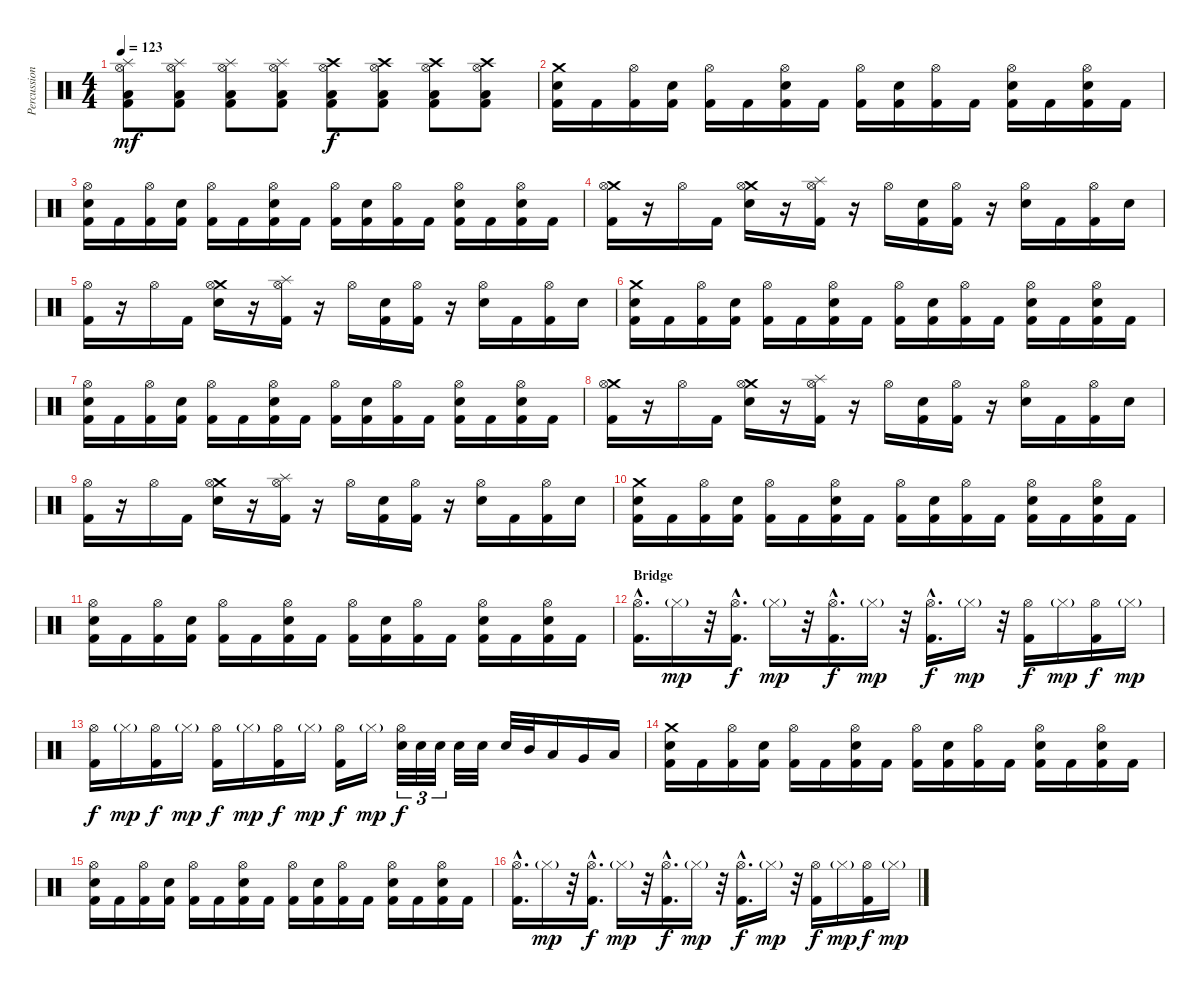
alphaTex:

\track ("Percussion" "Percussion") {instrument percussion}
\staff {score}
\articulation defaults
\ts (4 4)
\tempo 123
\clef neutral
\ks c
("Splash (hit)" "Hi-Hat (open)" "Low Floor Tom (hit)" "Kick (hit) 2").8{dy mf} ("Splash (hit)" "Hi-Hat (open)" "Low Floor Tom (hit)" "Kick (hit) 2").8 ("Splash (hit)" "Hi-Hat (open)" "Low Floor Tom (hit)" "Kick (hit) 2").8 ("Splash (hit)" "Hi-Hat (open)" "Low Floor Tom (hit)" "Kick (hit) 2").8 ("Hi-Hat (open)" "Crash high (hit)" "Low Floor Tom (hit)" "Kick (hit) 2").8{dy f} ("Hi-Hat (open)" "Crash high (hit)" "Low Floor Tom (hit)" "Kick (hit) 2").8 ("Hi-Hat (open)" "Crash high (hit)" "Low Floor Tom (hit)" "Kick (hit) 2").8 ("Hi-Hat (open)" "Crash high (hit)" "Low Floor Tom (hit)" "Kick (hit) 2").8 |
("Crash medium (hit)" "Electric Snare (hit)" "Kick (hit) 2").16 "Kick (hit) 2".16 ("Hi-Hat (open)" "Kick (hit) 2").16 ("Electric Snare (hit)" "Kick (hit) 2").16 ("Hi-Hat (open)" "Kick (hit) 2").16 "Kick (hit) 2".16 ("Hi-Hat (open)" "Electric Snare (hit)" "Kick (hit) 2").16 "Kick (hit) 2".16 ("Hi-Hat (open)" "Kick (hit) 2").16 ("Electric Snare (hit)" "Kick (hit) 2").16 ("Hi-Hat (open)" "Kick (hit) 2").16 "Kick (hit) 2".16 ("Hi-Hat (open)" "Electric Snare (hit)" "Kick (hit) 2").16 "Kick (hit) 2".16 ("Hi-Hat (open)" "Electric Snare (hit)" "Kick (hit) 2").16 "Kick (hit) 2".16 |
("Hi-Hat (open)" "Electric Snare (hit)" "Kick (hit) 2").16 "Kick (hit) 2".16 ("Hi-Hat (open)" "Kick (hit) 2").16 ("Electric Snare (hit)" "Kick (hit) 2").16 ("Hi-Hat (open)" "Kick (hit) 2").16 "Kick (hit) 2".16 ("Hi-Hat (open)" "Electric Snare (hit)" "Kick (hit) 2").16 "Kick (hit) 2".16 ("Hi-Hat (open)" "Kick (hit) 2").16 ("Electric Snare (hit)" "Kick (hit) 2").16 ("Hi-Hat (open)" "Kick (hit) 2").16 "Kick (hit) 2".16 ("Hi-Hat (open)" "Electric Snare (hit)" "Kick (hit) 2").16 "Kick (hit) 2".16 ("Hi-Hat (open)" "Electric Snare (hit)" "Kick (hit) 2").16 "Kick (hit) 2".16 |
("Crash medium (hit)" "Hi-Hat (open)" "Kick (hit) 2").16 r.16 "Hi-Hat (open)".16 "Kick (hit) 2".16 ("Crash medium (hit)" "Hi-Hat (open)" "Electric Snare (hit)").16 r.16 ("Splash (hit)" "Hi-Hat (open)" "Kick (hit) 2").16 r.16 "Hi-Hat (open)".16 ("Electric Snare (hit)" "Kick (hit) 2").16 ("Hi-Hat (open)" "Kick (hit) 2").16 r.16 ("Hi-Hat (open)" "Electric Snare (hit)").16 "Kick (hit) 2".16 ("Hi-Hat (open)" "Kick (hit) 2").16 "Electric Snare (hit)".16 |
("Hi-Hat (open)" "Kick (hit) 2").16 r.16 "Hi-Hat (open)".16 "Kick (hit) 2".16 ("Crash medium (hit)" "Hi-Hat (open)" "Electric Snare (hit)").16 r.16 ("Splash (hit)" "Hi-Hat (open)" "Kick (hit) 2").16 r.16 "Hi-Hat (open)".16 ("Electric Snare (hit)" "Kick (hit) 2").16 ("Hi-Hat (open)" "Kick (hit) 2").16 r.16 ("Hi-Hat (open)" "Electric Snare (hit)").16 "Kick (hit) 2".16 ("Hi-Hat (open)" "Kick (hit) 2").16 "Electric Snare (hit)".16 |
("Crash medium (hit)" "Electric Snare (hit)" "Kick (hit) 2").16 "Kick (hit) 2".16 ("Hi-Hat (open)" "Kick (hit) 2").16 ("Electric Snare (hit)" "Kick (hit) 2").16 ("Hi-Hat (open)" "Kick (hit) 2").16 "Kick (hit) 2".16 ("Hi-Hat (open)" "Electric Snare (hit)" "Kick (hit) 2").16 "Kick (hit) 2".16 ("Hi-Hat (open)" "Kick (hit) 2").16 ("Electric Snare (hit)" "Kick (hit) 2").16 ("Hi-Hat (open)" "Kick (hit) 2").16 "Kick (hit) 2".16 ("Hi-Hat (open)" "Electric Snare (hit)" "Kick (hit) 2").16 "Kick (hit) 2".16 ("Hi-Hat (open)" "Electric Snare (hit)" "Kick (hit) 2").16 "Kick (hit) 2".16 |
("Hi-Hat (open)" "Electric Snare (hit)" "Kick (hit) 2").16 "Kick (hit) 2".16 ("Hi-Hat (open)" "Kick (hit) 2").16 ("Electric Snare (hit)" "Kick (hit) 2").16 ("Hi-Hat (open)" "Kick (hit) 2").16 "Kick (hit) 2".16 ("Hi-Hat (open)" "Electric Snare (hit)" "Kick (hit) 2").16 "Kick (hit) 2".16 ("Hi-Hat (open)" "Kick (hit) 2").16 ("Electric Snare (hit)" "Kick (hit) 2").16 ("Hi-Hat (open)" "Kick (hit) 2").16 "Kick (hit) 2".16 ("Hi-Hat (open)" "Electric Snare (hit)" "Kick (hit) 2").16 "Kick (hit) 2".16 ("Hi-Hat (open)" "Electric Snare (hit)" "Kick (hit) 2").16 "Kick (hit) 2".16 |
("Crash medium (hit)" "Hi-Hat (open)" "Kick (hit) 2").16 r.16 "Hi-Hat (open)".16 "Kick (hit) 2".16 ("Crash medium (hit)" "Hi-Hat (open)" "Electric Snare (hit)").16 r.16 ("Splash (hit)" "Hi-Hat (open)" "Kick (hit) 2").16 r.16 "Hi-Hat (open)".16 ("Electric Snare (hit)" "Kick (hit) 2").16 ("Hi-Hat (open)" "Kick (hit) 2").16 r.16 ("Hi-Hat (open)" "Electric Snare (hit)").16 "Kick (hit) 2".16 ("Hi-Hat (open)" "Kick (hit) 2").16 "Electric Snare (hit)".16 |
("Hi-Hat (open)" "Kick (hit) 2").16 r.16 "Hi-Hat (open)".16 "Kick (hit) 2".16 ("Crash medium (hit)" "Hi-Hat (open)" "Electric Snare (hit)").16 r.16 ("Splash (hit)" "Hi-Hat (open)" "Kick (hit) 2").16 r.16 "Hi-Hat (open)".16 ("Electric Snare (hit)" "Kick (hit) 2").16 ("Hi-Hat (open)" "Kick (hit) 2").16 r.16 ("Hi-Hat (open)" "Electric Snare (hit)").16 "Kick (hit) 2".16 ("Hi-Hat (open)" "Kick (hit) 2").16 "Electric Snare (hit)".16 |
("Crash medium (hit)" "Electric Snare (hit)" "Kick (hit) 2").16 "Kick (hit) 2".16 ("Hi-Hat (open)" "Kick (hit) 2").16 ("Electric Snare (hit)" "Kick (hit) 2").16 ("Hi-Hat (open)" "Kick (hit) 2").16 "Kick (hit) 2".16 ("Hi-Hat (open)" "Electric Snare (hit)" "Kick (hit) 2").16 "Kick (hit) 2".16 ("Hi-Hat (open)" "Kick (hit) 2").16 ("Electric Snare (hit)" "Kick (hit) 2").16 ("Hi-Hat (open)" "Kick (hit) 2").16 "Kick (hit) 2".16 ("Hi-Hat (open)" "Electric Snare (hit)" "Kick (hit) 2").16 "Kick (hit) 2".16 ("Hi-Hat (open)" "Electric Snare (hit)" "Kick (hit) 2").16 "Kick (hit) 2".16 |
("Hi-Hat (open)" "Electric Snare (hit)" "Kick (hit) 2").16 "Kick (hit) 2".16 ("Hi-Hat (open)" "Kick (hit) 2").16 ("Electric Snare (hit)" "Kick (hit) 2").16 ("Hi-Hat (open)" "Kick (hit) 2").16 "Kick (hit) 2".16 ("Hi-Hat (open)" "Electric Snare (hit)" "Kick (hit) 2").16 "Kick (hit) 2".16 ("Hi-Hat (open)" "Kick (hit) 2").16 ("Electric Snare (hit)" "Kick (hit) 2").16 ("Hi-Hat (open)" "Kick (hit) 2").16 "Kick (hit) 2".16 ("Hi-Hat (open)" "Electric Snare (hit)" "Kick (hit) 2").16 "Kick (hit) 2".16 ("Hi-Hat (open)" "Electric Snare (hit)" "Kick (hit) 2").16 "Kick (hit) 2".16 |
\section ("" "Bridge")
("Hi-Hat (open)"{hac} "Kick (hit) 2"{hac}).16{d} "Hi-Hat (closed)"{g}.16{dy mp} r.32 ("Hi-Hat (open)"{hac} "Kick (hit) 2"{hac}).16{d dy f} "Hi-Hat (closed)"{g}.16{dy mp} r.32 ("Hi-Hat (open)"{hac} "Kick (hit) 2"{hac}).16{d dy f} "Hi-Hat (closed)"{g}.16{dy mp} r.32 ("Hi-Hat (open)"{hac} "Kick (hit) 2"{hac}).16{d dy f} "Hi-Hat (closed)"{g}.16{dy mp} r.32 ("Hi-Hat (open)" "Kick (hit) 2").16{dy f} "Hi-Hat (closed)"{g}.16{dy mp} ("Hi-Hat (open)" "Kick (hit) 2").16{dy f} "Hi-Hat (closed)"{g}.16{dy mp} |
("Hi-Hat (open)" "Kick (hit) 2").16{dy f} "Hi-Hat (closed)"{g}.16{dy mp} ("Hi-Hat (open)" "Kick (hit) 2").16{dy f} "Hi-Hat (closed)"{g}.16{dy mp} ("Hi-Hat (open)" "Kick (hit) 2").16{dy f} "Hi-Hat (closed)"{g}.16{dy mp} ("Hi-Hat (open)" "Kick (hit) 2").16{dy f} "Hi-Hat (closed)"{g}.16{dy mp} ("Hi-Hat (open)" "Kick (hit) 2").16{dy f} "Hi-Hat (closed)"{g}.16{dy mp} ("Hi-Hat (open)" "Electric Snare (hit)").32{tu (3 2) dy f} "Electric Snare (hit)".32{tu (3 2)} "Electric Snare (hit)".32{tu (3 2)} "Electric Snare (hit)".32 "Electric Snare (hit)".32 "Electric Snare (hit)".32 "Mid Tom (hit)".32 "Low Tom (hit)".16 "Very Low Tom (hit)".16 "Low Floor Tom (hit)".16 |
("Crash medium (hit)" "Electric Snare (hit)" "Kick (hit) 2").16 "Kick (hit) 2".16 ("Hi-Hat (open)" "Kick (hit) 2").16 ("Electric Snare (hit)" "Kick (hit) 2").16 ("Hi-Hat (open)" "Kick (hit) 2").16 "Kick (hit) 2".16 ("Hi-Hat (open)" "Electric Snare (hit)" "Kick (hit) 2").16 "Kick (hit) 2".16 ("Hi-Hat (open)" "Kick (hit) 2").16 ("Electric Snare (hit)" "Kick (hit) 2").16 ("Hi-Hat (open)" "Kick (hit) 2").16 "Kick (hit) 2".16 ("Hi-Hat (open)" "Electric Snare (hit)" "Kick (hit) 2").16 "Kick (hit) 2".16 ("Hi-Hat (open)" "Electric Snare (hit)" "Kick (hit) 2").16 "Kick (hit) 2".16 |
("Hi-Hat (open)" "Electric Snare (hit)" "Kick (hit) 2").16 "Kick (hit) 2".16 ("Hi-Hat (open)" "Kick (hit) 2").16 ("Electric Snare (hit)" "Kick (hit) 2").16 ("Hi-Hat (open)" "Kick (hit) 2").16 "Kick (hit) 2".16 ("Hi-Hat (open)" "Electric Snare (hit)" "Kick (hit) 2").16 "Kick (hit) 2".16 ("Hi-Hat (open)" "Kick (hit) 2").16 ("Electric Snare (hit)" "Kick (hit) 2").16 ("Hi-Hat (open)" "Kick (hit) 2").16 "Kick (hit) 2".16 ("Hi-Hat (open)" "Electric Snare (hit)" "Kick (hit) 2").16 "Kick (hit) 2".16 ("Hi-Hat (open)" "Electric Snare (hit)" "Kick (hit) 2").16 "Kick (hit) 2".16 |
("Hi-Hat (open)"{hac} "Kick (hit) 2"{hac}).16{d} "Hi-Hat (closed)"{g}.16{dy mp} r.32 ("Hi-Hat (open)"{hac} "Kick (hit) 2"{hac}).16{d dy f} "Hi-Hat (closed)"{g}.16{dy mp} r.32 ("Hi-Hat (open)"{hac} "Kick (hit) 2"{hac}).16{d dy f} "Hi-Hat (closed)"{g}.16{dy mp} r.32 ("Hi-Hat (open)"{hac} "Kick (hit) 2"{hac}).16{d dy f} "Hi-Hat (closed)"{g}.16{dy mp} r.32 ("Hi-Hat (open)" "Kick (hit) 2").16{dy f} "Hi-Hat (closed)"{g}.16{dy mp} ("Hi-Hat (open)" "Kick (hit) 2").16{dy f} "Hi-Hat (closed)"{g}.16{dy mp}
